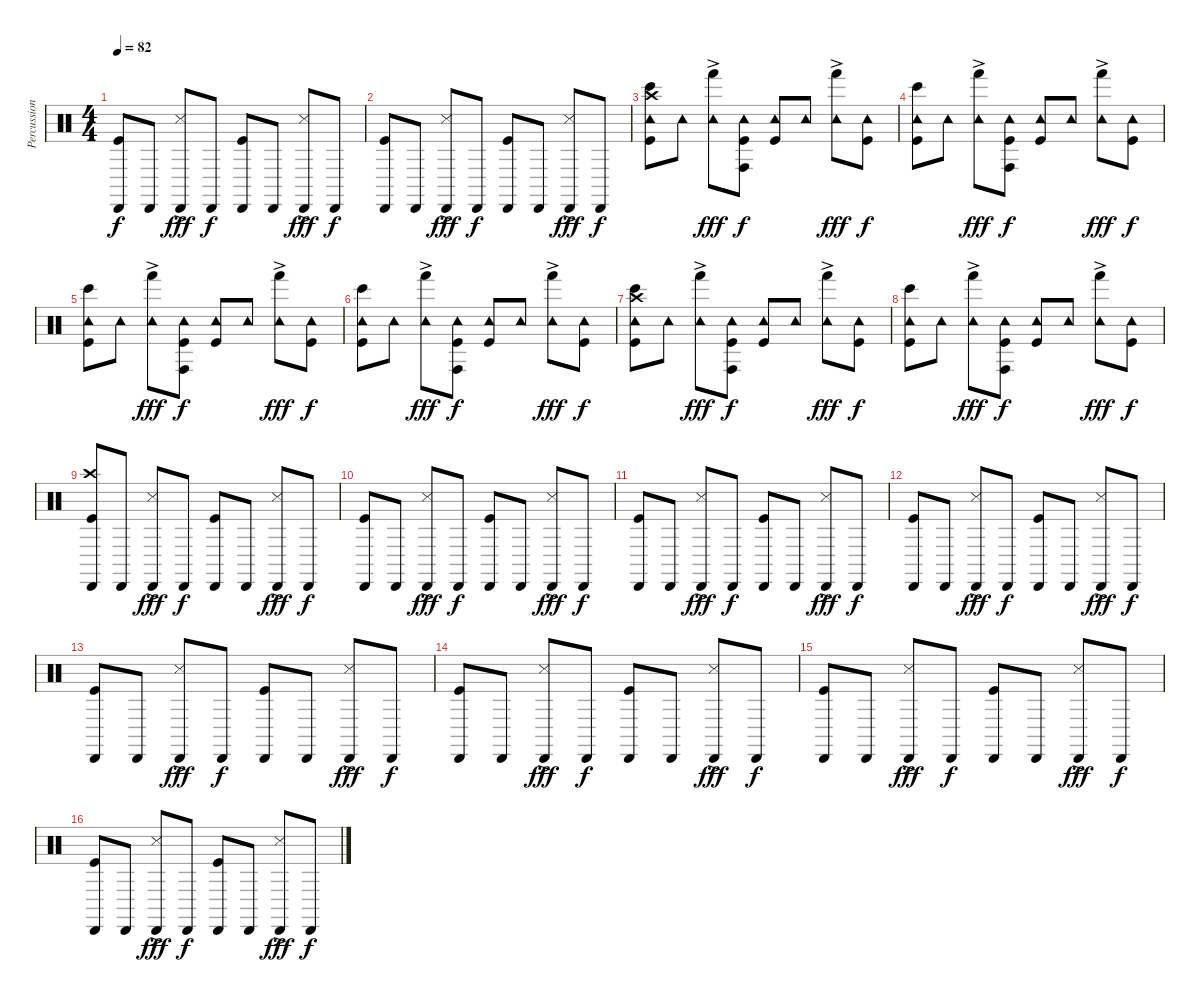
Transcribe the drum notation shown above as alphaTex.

\track ("Percussion" "Percussion") {instrument percussion}
\staff {score}
\articulation defaults
\ts (4 4)
\tempo 82
\clef neutral
\ks c
("Cabasa (hit)" "Kick (hit)").8{dy f} "Cabasa (hit)".8 ("Cabasa (hit)" "Snare (side stick) 3"{ac}).8{dy fff} "Cabasa (hit)".8{dy f} ("Cabasa (hit)" "Kick (hit)").8 "Cabasa (hit)".8 ("Cabasa (hit)" "Snare (side stick) 3"{ac}).8{dy fff} "Cabasa (hit)".8{dy f} |
("Cabasa (hit)" "Kick (hit)").8 "Cabasa (hit)".8 ("Cabasa (hit)" "Snare (side stick) 3"{ac}).8{dy fff} "Cabasa (hit)".8{dy f} ("Cabasa (hit)" "Kick (hit)").8 "Cabasa (hit)".8 ("Cabasa (hit)" "Snare (side stick) 3"{ac}).8{dy fff} "Cabasa (hit)".8{dy f} |
("Tambourine (hit)" "Crash high (hit)" "Bongo High (hit)" "Kick (hit)").8 "Tambourine (hit)".8 ("Tambourine (hit)" "Hand (hit)"{ac}).8{dy fff} ("Tambourine (hit)" "Conga high (hit)" "Kick (hit)").8{dy f} ("Tambourine (hit)" "Kick (hit)").8 "Tambourine (hit)".8 ("Tambourine (hit)" "Hand (hit)"{ac}).8{dy fff} ("Tambourine (hit)" "Kick (hit)").8{dy f} |
("Tambourine (hit)" "Bongo High (hit)" "Kick (hit)").8 "Tambourine (hit)".8 ("Tambourine (hit)" "Hand (hit)"{ac}).8{dy fff} ("Tambourine (hit)" "Conga high (hit)" "Kick (hit)").8{dy f} ("Tambourine (hit)" "Kick (hit)").8 "Tambourine (hit)".8 ("Tambourine (hit)" "Hand (hit)"{ac}).8{dy fff} ("Tambourine (hit)" "Kick (hit)").8{dy f} |
("Tambourine (hit)" "Bongo High (hit)" "Kick (hit)").8 "Tambourine (hit)".8 ("Tambourine (hit)" "Hand (hit)"{ac}).8{dy fff} ("Tambourine (hit)" "Conga high (hit)" "Kick (hit)").8{dy f} ("Tambourine (hit)" "Kick (hit)").8 "Tambourine (hit)".8 ("Tambourine (hit)" "Hand (hit)"{ac}).8{dy fff} ("Tambourine (hit)" "Kick (hit)").8{dy f} |
("Tambourine (hit)" "Bongo High (hit)" "Kick (hit)").8 "Tambourine (hit)".8 ("Tambourine (hit)" "Hand (hit)"{ac}).8{dy fff} ("Tambourine (hit)" "Conga high (hit)" "Kick (hit)").8{dy f} ("Tambourine (hit)" "Kick (hit)").8 "Tambourine (hit)".8 ("Tambourine (hit)" "Hand (hit)"{ac}).8{dy fff} ("Tambourine (hit)" "Kick (hit)").8{dy f} |
("Tambourine (hit)" "Crash high (hit)" "Bongo High (hit)" "Kick (hit)").8 "Tambourine (hit)".8 ("Tambourine (hit)" "Hand (hit)"{ac}).8{dy fff} ("Tambourine (hit)" "Conga high (hit)" "Kick (hit)").8{dy f} ("Tambourine (hit)" "Kick (hit)").8 "Tambourine (hit)".8 ("Tambourine (hit)" "Hand (hit)"{ac}).8{dy fff} ("Tambourine (hit)" "Kick (hit)").8{dy f} |
("Tambourine (hit)" "Bongo High (hit)" "Kick (hit)").8 "Tambourine (hit)".8 ("Tambourine (hit)" "Hand (hit)"{ac}).8{dy fff} ("Tambourine (hit)" "Conga high (hit)" "Kick (hit)").8{dy f} ("Tambourine (hit)" "Kick (hit)").8 "Tambourine (hit)".8 ("Tambourine (hit)" "Hand (hit)"{ac}).8{dy fff} ("Tambourine (hit)" "Kick (hit)").8{dy f} |
("Cabasa (hit)" "Crash high (hit)" "Kick (hit)").8 "Cabasa (hit)".8 ("Cabasa (hit)" "Snare (side stick) 3"{ac}).8{dy fff} "Cabasa (hit)".8{dy f} ("Cabasa (hit)" "Kick (hit)").8 "Cabasa (hit)".8 ("Cabasa (hit)" "Snare (side stick) 3"{ac}).8{dy fff} "Cabasa (hit)".8{dy f} |
("Cabasa (hit)" "Kick (hit)").8 "Cabasa (hit)".8 ("Cabasa (hit)" "Snare (side stick) 3"{ac}).8{dy fff} "Cabasa (hit)".8{dy f} ("Cabasa (hit)" "Kick (hit)").8 "Cabasa (hit)".8 ("Cabasa (hit)" "Snare (side stick) 3"{ac}).8{dy fff} "Cabasa (hit)".8{dy f} |
("Cabasa (hit)" "Kick (hit)").8 "Cabasa (hit)".8 ("Cabasa (hit)" "Snare (side stick) 3"{ac}).8{dy fff} "Cabasa (hit)".8{dy f} ("Cabasa (hit)" "Kick (hit)").8 "Cabasa (hit)".8 ("Cabasa (hit)" "Snare (side stick) 3"{ac}).8{dy fff} "Cabasa (hit)".8{dy f} |
("Cabasa (hit)" "Kick (hit)").8 "Cabasa (hit)".8 ("Cabasa (hit)" "Snare (side stick) 3"{ac}).8{dy fff} "Cabasa (hit)".8{dy f} ("Cabasa (hit)" "Kick (hit)").8 "Cabasa (hit)".8 ("Cabasa (hit)" "Snare (side stick) 3"{ac}).8{dy fff} "Cabasa (hit)".8{dy f} |
("Cabasa (hit)" "Kick (hit)").8 "Cabasa (hit)".8 ("Cabasa (hit)" "Snare (side stick) 3"{ac}).8{dy fff} "Cabasa (hit)".8{dy f} ("Cabasa (hit)" "Kick (hit)").8 "Cabasa (hit)".8 ("Cabasa (hit)" "Snare (side stick) 3"{ac}).8{dy fff} "Cabasa (hit)".8{dy f} |
("Cabasa (hit)" "Kick (hit)").8 "Cabasa (hit)".8 ("Cabasa (hit)" "Snare (side stick) 3"{ac}).8{dy fff} "Cabasa (hit)".8{dy f} ("Cabasa (hit)" "Kick (hit)").8 "Cabasa (hit)".8 ("Cabasa (hit)" "Snare (side stick) 3"{ac}).8{dy fff} "Cabasa (hit)".8{dy f} |
("Cabasa (hit)" "Kick (hit)").8 "Cabasa (hit)".8 ("Cabasa (hit)" "Snare (side stick) 3"{ac}).8{dy fff} "Cabasa (hit)".8{dy f} ("Cabasa (hit)" "Kick (hit)").8 "Cabasa (hit)".8 ("Cabasa (hit)" "Snare (side stick) 3"{ac}).8{dy fff} "Cabasa (hit)".8{dy f} |
("Cabasa (hit)" "Kick (hit)").8 "Cabasa (hit)".8 ("Cabasa (hit)" "Snare (side stick) 3"{ac}).8{dy fff} "Cabasa (hit)".8{dy f} ("Cabasa (hit)" "Kick (hit)").8 "Cabasa (hit)".8 ("Cabasa (hit)" "Snare (side stick) 3"{ac}).8{dy fff} "Cabasa (hit)".8{dy f}
